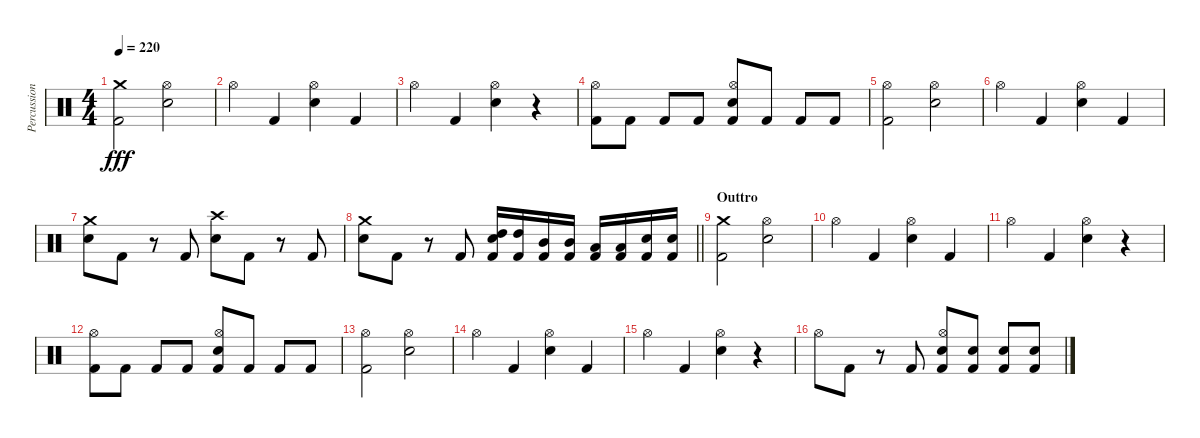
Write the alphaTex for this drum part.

\track ("Percussion" "Percussion") {instrument percussion}
\staff {score}
\articulation defaults
\ts (4 4)
\tempo 220
\clef neutral
\ks c
("Crash medium (hit)" "Kick (hit) 2").2{dy fff} ("Hi-Hat (open)" "Electric Snare (hit)").2 |
"Hi-Hat (open)".4 "Kick (hit) 2".4 ("Hi-Hat (open)" "Electric Snare (hit)").4 "Kick (hit) 2".4 |
"Hi-Hat (open)".4 "Kick (hit) 2".4 ("Hi-Hat (open)" "Electric Snare (hit)").4 r.4 |
("Hi-Hat (open)" "Kick (hit) 2").8 "Kick (hit) 2".8 "Kick (hit) 2".8 "Kick (hit) 2".8 ("Hi-Hat (open)" "Electric Snare (hit)" "Kick (hit) 2").8 "Kick (hit) 2".8 "Kick (hit) 2".8 "Kick (hit) 2".8 |
("Hi-Hat (open)" "Kick (hit) 2").2 ("Hi-Hat (open)" "Electric Snare (hit)").2 |
"Hi-Hat (open)".4 "Kick (hit) 2".4 ("Hi-Hat (open)" "Electric Snare (hit)").4 "Kick (hit) 2".4 |
("Crash medium (hit)" "Electric Snare (hit)").8 "Kick (hit) 2".8 r.8 "Kick (hit) 2".8 ("Crash high (hit)" "Electric Snare (hit)").8 "Kick (hit) 2".8 r.8 "Kick (hit) 2".8 |
\barLineRight lightlight
("Crash medium (hit)" "Electric Snare (hit)").8 "Kick (hit) 2".8 r.8 "Kick (hit) 2".8 ("High Tom (hit)" "Electric Snare (hit)" "Kick (hit) 2").16 ("High Tom (hit)" "Kick (hit) 2").16 ("Mid Tom (hit)" "Kick (hit) 2").16 ("Mid Tom (hit)" "Kick (hit) 2").16 ("Low Tom (hit)" "Kick (hit) 2").16 ("Low Tom (hit)" "Kick (hit) 2").16 ("Electric Snare (hit)" "Kick (hit) 2").16 ("Electric Snare (hit)" "Kick (hit) 2").16 |
\section ("" "Outtro")
("Crash medium (hit)" "Kick (hit) 2").2 ("Hi-Hat (open)" "Electric Snare (hit)").2 |
"Hi-Hat (open)".4 "Kick (hit) 2".4 ("Hi-Hat (open)" "Electric Snare (hit)").4 "Kick (hit) 2".4 |
"Hi-Hat (open)".4 "Kick (hit) 2".4 ("Hi-Hat (open)" "Electric Snare (hit)").4 r.4 |
("Hi-Hat (open)" "Kick (hit) 2").8 "Kick (hit) 2".8 "Kick (hit) 2".8 "Kick (hit) 2".8 ("Hi-Hat (open)" "Electric Snare (hit)" "Kick (hit) 2").8 "Kick (hit) 2".8 "Kick (hit) 2".8 "Kick (hit) 2".8 |
("Hi-Hat (open)" "Kick (hit) 2").2 ("Hi-Hat (open)" "Electric Snare (hit)").2 |
"Hi-Hat (open)".4 "Kick (hit) 2".4 ("Hi-Hat (open)" "Electric Snare (hit)").4 "Kick (hit) 2".4 |
"Hi-Hat (open)".4 "Kick (hit) 2".4 ("Hi-Hat (open)" "Electric Snare (hit)").4 r.4 |
"Hi-Hat (open)".8 "Kick (hit) 2".8 r.8 "Kick (hit) 2".8 ("Hi-Hat (open)" "Electric Snare (hit)" "Kick (hit) 2").8 ("Electric Snare (hit)" "Kick (hit) 2").8 ("Electric Snare (hit)" "Kick (hit) 2").8 ("Electric Snare (hit)" "Kick (hit) 2").8
